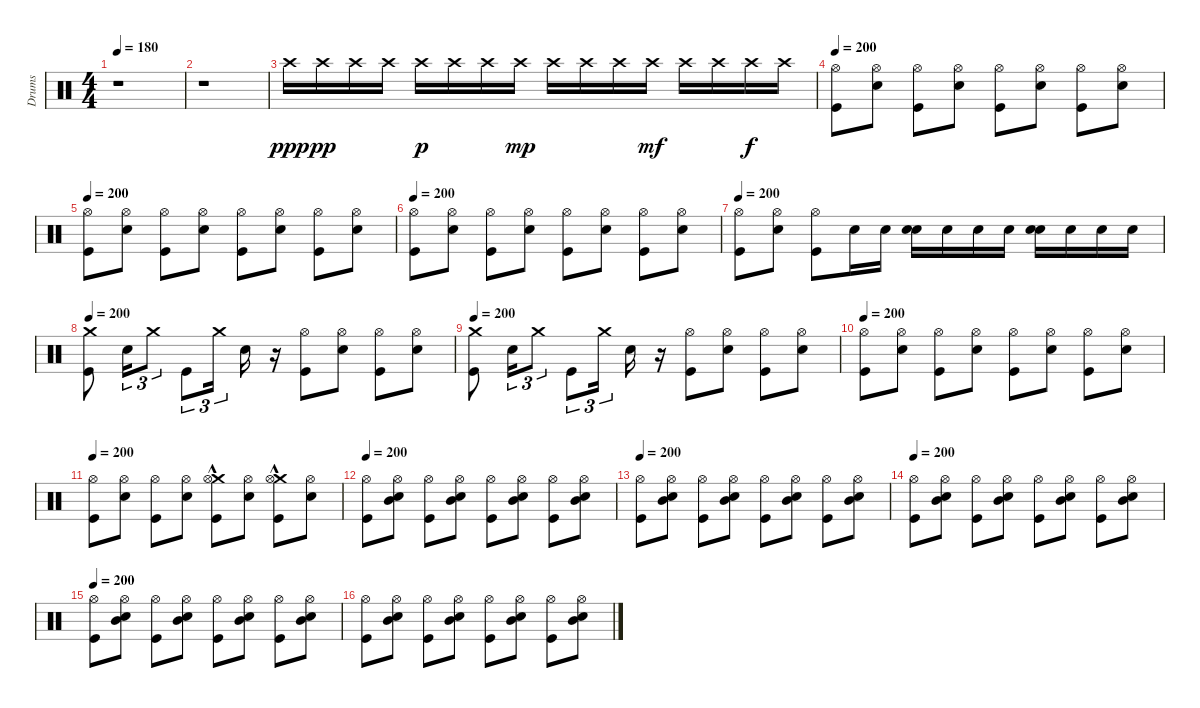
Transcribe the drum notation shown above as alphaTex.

\track ("Drums" "Drums") {instrument percussion}
\staff {score}
\articulation defaults
\ts (4 4)
\tempo 180
\clef neutral
\ks c
r.1{dy ppp} |
r.1 |
"Crash high (hit)".16 "Crash high (hit)".16{dy pp} "Crash high (hit)".16 "Crash high (hit)".16 "Crash high (hit)".16{dy p} "Crash high (hit)".16 "Crash high (hit)".16 "Crash high (hit)".16{dy mp} "Crash high (hit)".16 "Crash high (hit)".16 "Crash high (hit)".16 "Crash high (hit)".16{dy mf} "Crash high (hit)".16 "Crash high (hit)".16 "Crash high (hit)".16{dy f} "Crash high (hit)".16 |
\tempo 200
("Hi-Hat (open)" "Kick (hit)").8 ("Hi-Hat (open)" "Electric Snare (hit)").8 ("Hi-Hat (open)" "Kick (hit)").8 ("Hi-Hat (open)" "Electric Snare (hit)").8 ("Hi-Hat (open)" "Kick (hit)").8 ("Hi-Hat (open)" "Electric Snare (hit)").8 ("Hi-Hat (open)" "Kick (hit)").8 ("Hi-Hat (open)" "Electric Snare (hit)").8 |
\tempo 200
("Hi-Hat (open)" "Kick (hit)").8 ("Hi-Hat (open)" "Electric Snare (hit)").8 ("Hi-Hat (open)" "Kick (hit)").8 ("Hi-Hat (open)" "Electric Snare (hit)").8 ("Hi-Hat (open)" "Kick (hit)").8 ("Hi-Hat (open)" "Electric Snare (hit)").8 ("Hi-Hat (open)" "Kick (hit)").8 ("Hi-Hat (open)" "Electric Snare (hit)").8 |
\tempo 200
("Hi-Hat (open)" "Kick (hit)").8 ("Hi-Hat (open)" "Electric Snare (hit)").8 ("Hi-Hat (open)" "Kick (hit)").8 ("Hi-Hat (open)" "Electric Snare (hit)").8 ("Hi-Hat (open)" "Kick (hit)").8 ("Hi-Hat (open)" "Electric Snare (hit)").8 ("Hi-Hat (open)" "Kick (hit)").8 ("Hi-Hat (open)" "Electric Snare (hit)").8 |
\tempo 200
("Hi-Hat (open)" "Kick (hit)").8 ("Hi-Hat (open)" "Electric Snare (hit)").8 ("Hi-Hat (open)" "Kick (hit)").8 "Electric Snare (hit)".16 "Electric Snare (hit)".16 ("Electric Snare (hit)" "Electric Snare (hit)").16 "Electric Snare (hit)".16 "Electric Snare (hit)".16 "Electric Snare (hit)".16 ("Electric Snare (hit)" "Electric Snare (hit)").16 "Electric Snare (hit)".16 "Electric Snare (hit)".16 "Electric Snare (hit)".16 |
\tempo 200
("Crash medium (hit)" "Kick (hit)").8 "Electric Snare (hit)".16{tu (3 2)} "Crash medium (hit)".8{tu (3 2)} "Kick (hit)".8{tu (3 2)} "Crash medium (hit)".16{tu (3 2)} "Electric Snare (hit)".16 r.16 ("Hi-Hat (open)" "Kick (hit)").8 ("Hi-Hat (open)" "Electric Snare (hit)").8 ("Hi-Hat (open)" "Kick (hit)").8 ("Hi-Hat (open)" "Electric Snare (hit)").8 |
\tempo 200
("Kick (hit)" "Crash medium (hit)").8 "Electric Snare (hit)".16{tu (3 2)} "Crash medium (hit)".8{tu (3 2)} "Kick (hit)".8{tu (3 2)} "Crash medium (hit)".16{tu (3 2)} "Electric Snare (hit)".16 r.16 ("Hi-Hat (open)" "Kick (hit)").8 ("Electric Snare (hit)" "Hi-Hat (open)").8 ("Hi-Hat (open)" "Kick (hit)").8 ("Hi-Hat (open)" "Electric Snare (hit)").8 |
\tempo 200
("Kick (hit)" "Hi-Hat (open)").8 ("Electric Snare (hit)" "Hi-Hat (open)").8 ("Hi-Hat (open)" "Kick (hit)").8 ("Hi-Hat (open)" "Electric Snare (hit)").8 ("Hi-Hat (open)" "Kick (hit)").8 ("Hi-Hat (open)" "Electric Snare (hit)").8 ("Kick (hit)" "Hi-Hat (open)").8 ("Hi-Hat (open)" "Electric Snare (hit)").8 |
\tempo 200
("Kick (hit)" "Hi-Hat (open)").8 ("Electric Snare (hit)" "Hi-Hat (open)").8 ("Hi-Hat (open)" "Kick (hit)").8 ("Hi-Hat (open)" "Electric Snare (hit)").8 ("Crash medium (hit)"{hac} "Hi-Hat (open)" "Kick (hit)").8 ("Hi-Hat (open)" "Electric Snare (hit)").8 ("Crash medium (hit)"{hac} "Kick (hit)" "Hi-Hat (open)").8 ("Hi-Hat (open)" "Electric Snare (hit)").8 |
\tempo 200
("Kick (hit)" "Hi-Hat (open)").8 ("Mid Tom (hit)" "Electric Snare (hit)" "Hi-Hat (open)").8 ("Hi-Hat (open)" "Kick (hit)").8 ("Mid Tom (hit)" "Hi-Hat (open)" "Electric Snare (hit)").8 ("Hi-Hat (open)" "Kick (hit)").8 ("Mid Tom (hit)" "Hi-Hat (open)" "Electric Snare (hit)").8 ("Kick (hit)" "Hi-Hat (open)").8 ("Mid Tom (hit)" "Hi-Hat (open)" "Electric Snare (hit)").8 |
\tempo 200
("Kick (hit)" "Hi-Hat (open)").8 ("Electric Snare (hit)" "Hi-Hat (open)" "Mid Tom (hit)").8 ("Kick (hit)" "Hi-Hat (open)").8 ("Hi-Hat (open)" "Mid Tom (hit)" "Electric Snare (hit)").8 ("Hi-Hat (open)" "Kick (hit)").8 ("Electric Snare (hit)" "Mid Tom (hit)" "Hi-Hat (open)").8 ("Kick (hit)" "Hi-Hat (open)").8 ("Hi-Hat (open)" "Electric Snare (hit)" "Mid Tom (hit)").8 |
\tempo 200
("Kick (hit)" "Hi-Hat (open)").8 ("Electric Snare (hit)" "Hi-Hat (open)" "Mid Tom (hit)").8 ("Hi-Hat (open)" "Kick (hit)").8 ("Electric Snare (hit)" "Hi-Hat (open)" "Mid Tom (hit)").8 ("Kick (hit)" "Hi-Hat (open)").8 ("Hi-Hat (open)" "Electric Snare (hit)" "Mid Tom (hit)").8 ("Hi-Hat (open)" "Kick (hit)").8 ("Electric Snare (hit)" "Hi-Hat (open)" "Mid Tom (hit)").8 |
\tempo 200
("Hi-Hat (open)" "Kick (hit)").8 ("Hi-Hat (open)" "Electric Snare (hit)" "Mid Tom (hit)").8 ("Kick (hit)" "Hi-Hat (open)").8 ("Electric Snare (hit)" "Hi-Hat (open)" "Mid Tom (hit)").8 ("Kick (hit)" "Hi-Hat (open)").8 ("Hi-Hat (open)" "Electric Snare (hit)" "Mid Tom (hit)").8 ("Kick (hit)" "Hi-Hat (open)").8 ("Electric Snare (hit)" "Hi-Hat (open)" "Mid Tom (hit)").8 |
("Hi-Hat (open)" "Kick (hit)").8 ("Hi-Hat (open)" "Electric Snare (hit)" "Mid Tom (hit)").8 ("Kick (hit)" "Hi-Hat (open)").8 ("Hi-Hat (open)" "Electric Snare (hit)" "Mid Tom (hit)").8 ("Hi-Hat (open)" "Kick (hit)").8 ("Mid Tom (hit)" "Hi-Hat (open)" "Electric Snare (hit)").8 ("Hi-Hat (open)" "Kick (hit)").8 ("Mid Tom (hit)" "Hi-Hat (open)" "Electric Snare (hit)").8
